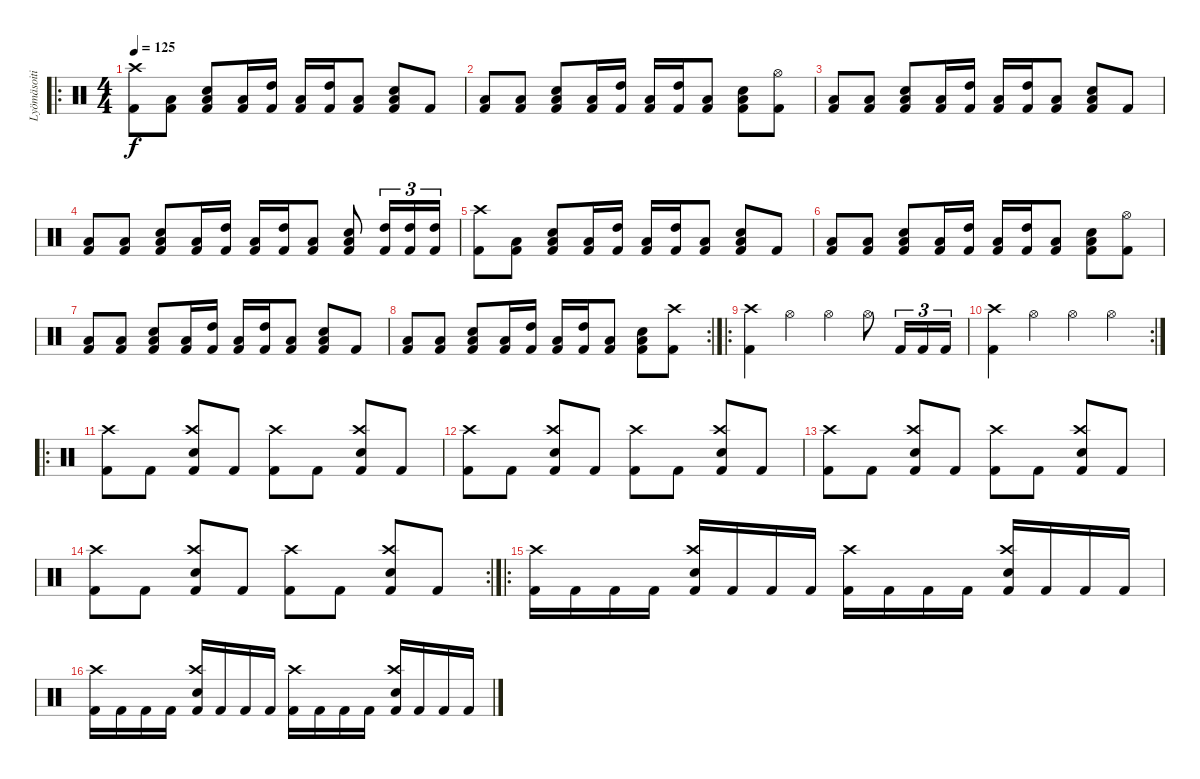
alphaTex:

\track ("Lyömäsoitin" "Lyömäsoiti") {instrument percussion}
\staff {score}
\articulation defaults
\ro
\ts (4 4)
\tempo 125
\clef neutral
\ks c
("Kick (hit) 2" "Crash high (hit)").8{dy f} ("Kick (hit) 2" "Low Tom (hit)").8 ("Kick (hit) 2" "Low Tom (hit)" "Electric Snare (hit)").8 ("Kick (hit) 2" "Low Tom (hit)").16 ("Kick (hit) 2" "High Tom (hit)").16 ("Kick (hit) 2" "Low Tom (hit)").16 ("Kick (hit) 2" "High Tom (hit)").16 ("Kick (hit) 2" "Low Tom (hit)").8 ("Kick (hit) 2" "Electric Snare (hit)" "Low Tom (hit)").8 "Kick (hit) 2".8 |
("Kick (hit) 2" "Low Tom (hit)").8 ("Kick (hit) 2" "Low Tom (hit)").8 ("Kick (hit) 2" "Low Tom (hit)" "Electric Snare (hit)").8 ("Kick (hit) 2" "Low Tom (hit)").16 ("Kick (hit) 2" "High Tom (hit)").16 ("Kick (hit) 2" "Low Tom (hit)").16 ("Kick (hit) 2" "High Tom (hit)").16 ("Kick (hit) 2" "Low Tom (hit)").8 ("Kick (hit) 2" "Electric Snare (hit)" "Low Tom (hit)").8 ("Kick (hit) 2" "Hi-Hat (open)").8 |
("Kick (hit) 2" "Low Tom (hit)").8 ("Kick (hit) 2" "Low Tom (hit)").8 ("Kick (hit) 2" "Low Tom (hit)" "Electric Snare (hit)").8 ("Kick (hit) 2" "Low Tom (hit)").16 ("Kick (hit) 2" "High Tom (hit)").16 ("Kick (hit) 2" "Low Tom (hit)").16 ("Kick (hit) 2" "High Tom (hit)").16 ("Kick (hit) 2" "Low Tom (hit)").8 ("Kick (hit) 2" "Electric Snare (hit)" "Low Tom (hit)").8 "Kick (hit) 2".8 |
("Kick (hit) 2" "Low Tom (hit)").8 ("Kick (hit) 2" "Low Tom (hit)").8 ("Kick (hit) 2" "Low Tom (hit)" "Electric Snare (hit)").8 ("Kick (hit) 2" "Low Tom (hit)").16 ("Kick (hit) 2" "High Tom (hit)").16 ("Kick (hit) 2" "Low Tom (hit)").16 ("Kick (hit) 2" "High Tom (hit)").16 ("Kick (hit) 2" "Low Tom (hit)").8 ("Kick (hit) 2" "Electric Snare (hit)" "Low Tom (hit)").8 ("Kick (hit) 2" "High Tom (hit)").16{tu (3 2)} ("Kick (hit) 2" "High Tom (hit)").16{tu (3 2)} ("Kick (hit) 2" "High Tom (hit)").16{tu (3 2)} |
("Kick (hit) 2" "Crash high (hit)").8 ("Kick (hit) 2" "Low Tom (hit)").8 ("Kick (hit) 2" "Low Tom (hit)" "Electric Snare (hit)").8 ("Kick (hit) 2" "Low Tom (hit)").16 ("Kick (hit) 2" "High Tom (hit)").16 ("Kick (hit) 2" "Low Tom (hit)").16 ("Kick (hit) 2" "High Tom (hit)").16 ("Kick (hit) 2" "Low Tom (hit)").8 ("Kick (hit) 2" "Electric Snare (hit)" "Low Tom (hit)").8 "Kick (hit) 2".8 |
("Kick (hit) 2" "Low Tom (hit)").8 ("Kick (hit) 2" "Low Tom (hit)").8 ("Kick (hit) 2" "Low Tom (hit)" "Electric Snare (hit)").8 ("Kick (hit) 2" "Low Tom (hit)").16 ("Kick (hit) 2" "High Tom (hit)").16 ("Kick (hit) 2" "Low Tom (hit)").16 ("Kick (hit) 2" "High Tom (hit)").16 ("Kick (hit) 2" "Low Tom (hit)").8 ("Kick (hit) 2" "Electric Snare (hit)" "Low Tom (hit)").8 ("Kick (hit) 2" "Hi-Hat (open)").8 |
("Kick (hit) 2" "Low Tom (hit)").8 ("Kick (hit) 2" "Low Tom (hit)").8 ("Kick (hit) 2" "Low Tom (hit)" "Electric Snare (hit)").8 ("Kick (hit) 2" "Low Tom (hit)").16 ("Kick (hit) 2" "High Tom (hit)").16 ("Kick (hit) 2" "Low Tom (hit)").16 ("Kick (hit) 2" "High Tom (hit)").16 ("Kick (hit) 2" "Low Tom (hit)").8 ("Kick (hit) 2" "Electric Snare (hit)" "Low Tom (hit)").8 "Kick (hit) 2".8 |
\rc 2
("Kick (hit) 2" "Low Tom (hit)").8 ("Kick (hit) 2" "Low Tom (hit)").8 ("Kick (hit) 2" "Low Tom (hit)" "Electric Snare (hit)").8 ("Kick (hit) 2" "Low Tom (hit)").16 ("Kick (hit) 2" "High Tom (hit)").16 ("Kick (hit) 2" "Low Tom (hit)").16 ("Kick (hit) 2" "High Tom (hit)").16 ("Kick (hit) 2" "Low Tom (hit)").8 ("Kick (hit) 2" "Electric Snare (hit)" "Low Tom (hit)").8 ("Kick (hit) 2" "Crash high (hit)").8 |
\ro
("Kick (hit) 2" "Crash high (hit)").4 "Hi-Hat (open)".4 "Hi-Hat (open)".4 "Hi-Hat (open)".8 "Kick (hit) 2".16{tu (3 2)} "Kick (hit) 2".16{tu (3 2)} "Kick (hit) 2".16{tu (3 2)} |
\rc 2
("Kick (hit) 2" "Crash high (hit)").4 "Hi-Hat (open)".4 "Hi-Hat (open)".4 "Hi-Hat (open)".4 |
\ro
("Kick (hit) 2" "Crash high (hit)").8 "Kick (hit) 2".8 ("Kick (hit) 2" "Crash high (hit)" "Electric Snare (hit)").8 "Kick (hit) 2".8 ("Kick (hit) 2" "Crash high (hit)").8 "Kick (hit) 2".8 ("Kick (hit) 2" "Crash high (hit)" "Electric Snare (hit)").8 "Kick (hit) 2".8 |
("Kick (hit) 2" "Crash high (hit)").8 "Kick (hit) 2".8 ("Kick (hit) 2" "Crash high (hit)" "Electric Snare (hit)").8 "Kick (hit) 2".8 ("Kick (hit) 2" "Crash high (hit)").8 "Kick (hit) 2".8 ("Kick (hit) 2" "Crash high (hit)" "Electric Snare (hit)").8 "Kick (hit) 2".8 |
("Kick (hit) 2" "Crash high (hit)").8 "Kick (hit) 2".8 ("Kick (hit) 2" "Crash high (hit)" "Electric Snare (hit)").8 "Kick (hit) 2".8 ("Kick (hit) 2" "Crash high (hit)").8 "Kick (hit) 2".8 ("Kick (hit) 2" "Crash high (hit)" "Electric Snare (hit)").8 "Kick (hit) 2".8 |
\rc 2
("Kick (hit) 2" "Crash high (hit)").8 "Kick (hit) 2".8 ("Kick (hit) 2" "Crash high (hit)" "Electric Snare (hit)").8 "Kick (hit) 2".8 ("Kick (hit) 2" "Crash high (hit)").8 "Kick (hit) 2".8 ("Kick (hit) 2" "Crash high (hit)" "Electric Snare (hit)").8 "Kick (hit) 2".8 |
\ro
("Kick (hit) 2" "Crash high (hit)").16 "Kick (hit) 2".16 "Kick (hit) 2".16 "Kick (hit) 2".16 ("Kick (hit) 2" "Crash high (hit)" "Electric Snare (hit)").16 "Kick (hit) 2".16 "Kick (hit) 2".16 "Kick (hit) 2".16 ("Kick (hit) 2" "Crash high (hit)").16 "Kick (hit) 2".16 "Kick (hit) 2".16 "Kick (hit) 2".16 ("Kick (hit) 2" "Crash high (hit)" "Electric Snare (hit)").16 "Kick (hit) 2".16 "Kick (hit) 2".16 "Kick (hit) 2".16 |
("Kick (hit) 2" "Crash high (hit)").16 "Kick (hit) 2".16 "Kick (hit) 2".16 "Kick (hit) 2".16 ("Kick (hit) 2" "Crash high (hit)" "Electric Snare (hit)").16 "Kick (hit) 2".16 "Kick (hit) 2".16 "Kick (hit) 2".16 ("Kick (hit) 2" "Crash high (hit)").16 "Kick (hit) 2".16 "Kick (hit) 2".16 "Kick (hit) 2".16 ("Kick (hit) 2" "Crash high (hit)" "Electric Snare (hit)").16 "Kick (hit) 2".16 "Kick (hit) 2".16 "Kick (hit) 2".16
